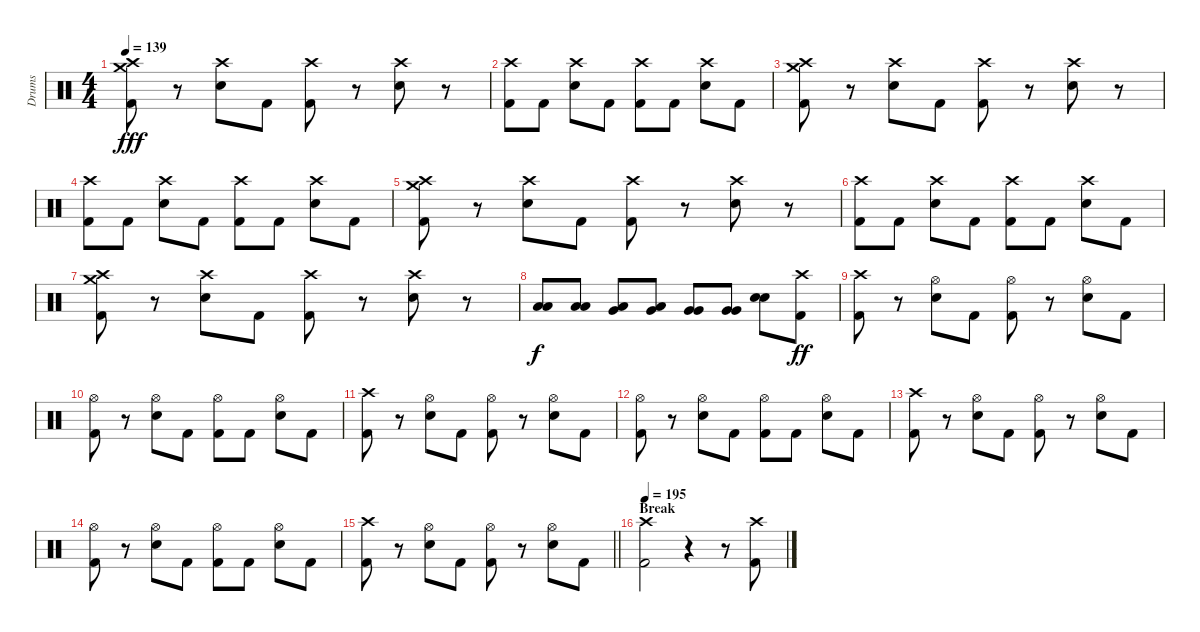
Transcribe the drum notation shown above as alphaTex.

\track ("Drums" "Drums") {instrument percussion}
\staff {score}
\articulation defaults
\ts (4 4)
\tempo 139
\clef neutral
\ks c
("Crash high (hit)" "Crash medium (hit)" "Kick (hit) 2").8{dy fff} r.8 ("Crash high (hit)" "Snare (hit) 2").8 "Kick (hit) 2".8 ("Crash high (hit)" "Kick (hit) 2").8 r.8 ("Crash high (hit)" "Snare (hit) 2").8 r.8 |
("Crash high (hit)" "Kick (hit) 2").8 "Kick (hit) 2".8 ("Crash high (hit)" "Snare (hit) 2").8 "Kick (hit) 2".8 ("Crash high (hit)" "Kick (hit) 2").8 "Kick (hit) 2".8 ("Crash high (hit)" "Snare (hit) 2").8 "Kick (hit) 2".8 |
("Crash high (hit)" "Crash medium (hit)" "Kick (hit) 2").8 r.8 ("Crash high (hit)" "Snare (hit) 2").8 "Kick (hit) 2".8 ("Crash high (hit)" "Kick (hit) 2").8 r.8 ("Crash high (hit)" "Snare (hit) 2").8 r.8 |
("Crash high (hit)" "Kick (hit) 2").8 "Kick (hit) 2".8 ("Crash high (hit)" "Snare (hit) 2").8 "Kick (hit) 2".8 ("Crash high (hit)" "Kick (hit) 2").8 "Kick (hit) 2".8 ("Crash high (hit)" "Snare (hit) 2").8 "Kick (hit) 2".8 |
("Crash high (hit)" "Crash medium (hit)" "Kick (hit) 2").8 r.8 ("Crash high (hit)" "Snare (hit) 2").8 "Kick (hit) 2".8 ("Crash high (hit)" "Kick (hit) 2").8 r.8 ("Crash high (hit)" "Snare (hit) 2").8 r.8 |
("Crash high (hit)" "Kick (hit) 2").8 "Kick (hit) 2".8 ("Crash high (hit)" "Snare (hit) 2").8 "Kick (hit) 2".8 ("Crash high (hit)" "Kick (hit) 2").8 "Kick (hit) 2".8 ("Crash high (hit)" "Snare (hit) 2").8 "Kick (hit) 2".8 |
("Crash high (hit)" "Crash medium (hit)" "Kick (hit) 2").8 r.8 ("Crash high (hit)" "Snare (hit) 2").8 "Kick (hit) 2".8 ("Crash high (hit)" "Kick (hit) 2").8 r.8 ("Crash high (hit)" "Snare (hit) 2").8 r.8 |
("Low Floor Tom (hit)" "Low Floor Tom (hit)").8{dy f} ("Low Floor Tom (hit)" "Low Floor Tom (hit)").8 ("Very Low Tom (hit)" "Low Floor Tom (hit)").8 ("Very Low Tom (hit)" "Low Floor Tom (hit)").8 ("Very Low Tom (hit)" "Very Low Tom (hit)").8 ("Very Low Tom (hit)" "Very Low Tom (hit)").8 ("Snare (hit) 2" "Snare (hit) 2").8 ("Crash high (hit)" "Kick (hit) 2").8{dy ff} |
("Crash high (hit)" "Kick (hit) 2").8 r.8 ("Hi-Hat (open)" "Snare (hit) 2").8 "Kick (hit) 2".8 ("Hi-Hat (open)" "Kick (hit) 2").8 r.8 ("Hi-Hat (open)" "Snare (hit) 2").8 "Kick (hit) 2".8 |
("Hi-Hat (open)" "Kick (hit) 2").8 r.8 ("Hi-Hat (open)" "Snare (hit) 2").8 "Kick (hit) 2".8 ("Hi-Hat (open)" "Kick (hit) 2").8 "Kick (hit) 2".8 ("Hi-Hat (open)" "Snare (hit) 2").8 "Kick (hit) 2".8 |
("Crash high (hit)" "Kick (hit) 2").8 r.8 ("Hi-Hat (open)" "Snare (hit) 2").8 "Kick (hit) 2".8 ("Hi-Hat (open)" "Kick (hit) 2").8 r.8 ("Hi-Hat (open)" "Snare (hit) 2").8 "Kick (hit) 2".8 |
("Hi-Hat (open)" "Kick (hit) 2").8 r.8 ("Hi-Hat (open)" "Snare (hit) 2").8 "Kick (hit) 2".8 ("Hi-Hat (open)" "Kick (hit) 2").8 "Kick (hit) 2".8 ("Hi-Hat (open)" "Snare (hit) 2").8 "Kick (hit) 2".8 |
("Crash high (hit)" "Kick (hit) 2").8 r.8 ("Hi-Hat (open)" "Snare (hit) 2").8 "Kick (hit) 2".8 ("Hi-Hat (open)" "Kick (hit) 2").8 r.8 ("Hi-Hat (open)" "Snare (hit) 2").8 "Kick (hit) 2".8 |
("Hi-Hat (open)" "Kick (hit) 2").8 r.8 ("Hi-Hat (open)" "Snare (hit) 2").8 "Kick (hit) 2".8 ("Hi-Hat (open)" "Kick (hit) 2").8 "Kick (hit) 2".8 ("Hi-Hat (open)" "Snare (hit) 2").8 "Kick (hit) 2".8 |
\barLineRight lightlight
("Crash high (hit)" "Kick (hit) 2").8 r.8 ("Hi-Hat (open)" "Snare (hit) 2").8 "Kick (hit) 2".8 ("Hi-Hat (open)" "Kick (hit) 2").8 r.8 ("Hi-Hat (open)" "Snare (hit) 2").8 "Kick (hit) 2".8 |
\section ("" "Break")
\tempo 195
("Crash high (hit)" "Kick (hit) 2").2 r.4 r.8 ("Crash high (hit)" "Kick (hit) 2").8
